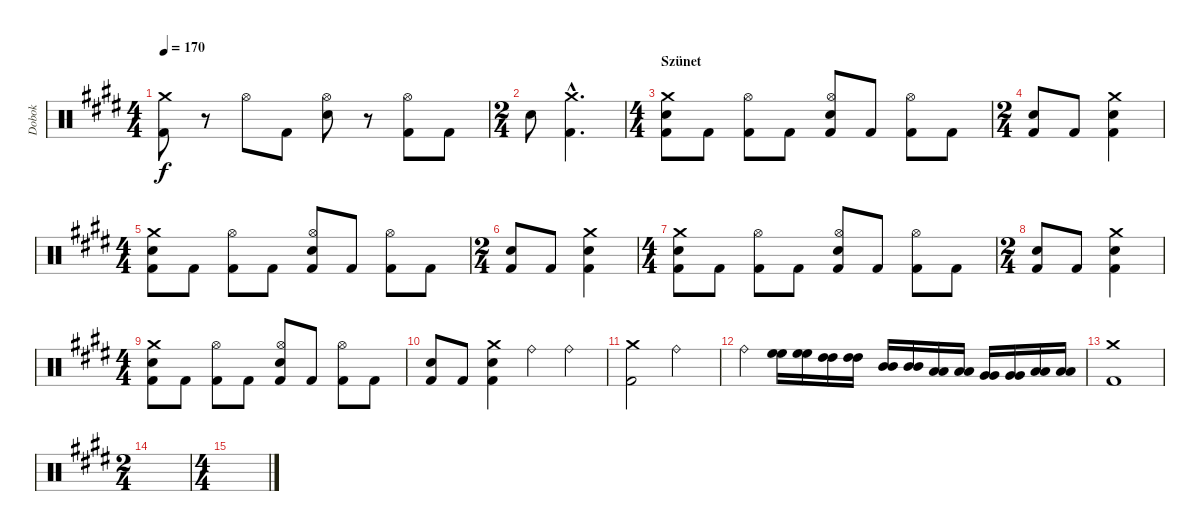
\track ("Dobok" "Dobok") {instrument percussion}
\staff {score}
\articulation defaults
\ts (4 4)
\tempo 170
\clef neutral
\ks c#minor
("Crash medium (hit)" "Kick (hit) 2").8{dy f} r.8 "Hi-Hat (open)".8 "Kick (hit) 2".8 ("Hi-Hat (open)" "Snare (hit) 2").8 r.8 ("Hi-Hat (open)" "Kick (hit) 2").8 "Kick (hit) 2".8 |
\ts (2 4)
"Snare (hit) 2".8 ("Crash medium (hit)"{hac} "Kick (hit) 2"{hac}).4{d} |
\ts (4 4)
\section ("" "Szünet")
("Crash medium (hit)" "Snare (hit) 2" "Kick (hit) 2").8 "Kick (hit) 2".8 ("Hi-Hat (open)" "Kick (hit) 2").8 "Kick (hit) 2".8 ("Hi-Hat (open)" "Snare (hit) 2" "Kick (hit) 2").8 "Kick (hit) 2".8 ("Hi-Hat (open)" "Kick (hit) 2").8 "Kick (hit) 2".8 |
\ts (2 4)
("Snare (hit) 2" "Kick (hit) 2").8 "Kick (hit) 2".8 ("Crash medium (hit)" "Snare (hit) 2" "Kick (hit) 2").4 |
\ts (4 4)
("Crash medium (hit)" "Snare (hit) 2" "Kick (hit) 2").8 "Kick (hit) 2".8 ("Hi-Hat (open)" "Kick (hit) 2").8 "Kick (hit) 2".8 ("Hi-Hat (open)" "Snare (hit) 2" "Kick (hit) 2").8 "Kick (hit) 2".8 ("Hi-Hat (open)" "Kick (hit) 2").8 "Kick (hit) 2".8 |
\ts (2 4)
("Snare (hit) 2" "Kick (hit) 2").8 "Kick (hit) 2".8 ("Crash medium (hit)" "Snare (hit) 2" "Kick (hit) 2").4 |
\ts (4 4)
("Crash medium (hit)" "Snare (hit) 2" "Kick (hit) 2").8 "Kick (hit) 2".8 ("Hi-Hat (open)" "Kick (hit) 2").8 "Kick (hit) 2".8 ("Hi-Hat (open)" "Snare (hit) 2" "Kick (hit) 2").8 "Kick (hit) 2".8 ("Hi-Hat (open)" "Kick (hit) 2").8 "Kick (hit) 2".8 |
\ts (2 4)
("Snare (hit) 2" "Kick (hit) 2").8 "Kick (hit) 2".8 ("Crash medium (hit)" "Snare (hit) 2" "Kick (hit) 2").4 |
\ts (4 4)
("Crash medium (hit)" "Snare (hit) 2" "Kick (hit) 2").8 "Kick (hit) 2".8 ("Hi-Hat (open)" "Kick (hit) 2").8 "Kick (hit) 2".8 ("Hi-Hat (open)" "Snare (hit) 2" "Kick (hit) 2").8 "Kick (hit) 2".8 ("Hi-Hat (open)" "Kick (hit) 2").8 "Kick (hit) 2".8 |
("Snare (hit) 2" "Kick (hit) 2").8 "Kick (hit) 2".8 ("Crash medium (hit)" "Snare (hit) 2" "Kick (hit) 2").4 "Ride (bell)".4 "Ride (bell)".4 |
("Crash medium (hit)" "Kick (hit) 2").2 "Ride (bell)".2 |
"Ride (bell)".4 ("High Floor Tom (hit)" "High Floor Tom (hit)").16 ("High Floor Tom (hit)" "High Floor Tom (hit)").16 ("High Tom (hit)" "High Tom (hit)").16 ("High Tom (hit)" "High Tom (hit)").16 ("Mid Tom (hit)" "Mid Tom (hit)").16 ("Mid Tom (hit)" "Mid Tom (hit)").16 ("Low Tom (hit)" "Low Tom (hit)").16 ("Low Tom (hit)" "Low Tom (hit)").16 ("Very Low Tom (hit)" "Very Low Tom (hit)").16 ("Very Low Tom (hit)" "Very Low Tom (hit)").16 ("Low Floor Tom (hit)" "Low Floor Tom (hit)").16 ("Low Floor Tom (hit)" "Low Floor Tom (hit)").16 |
("Crash medium (hit)" "Kick (hit) 2").1 |
\ts (2 4)
|
\ts (4 4)
